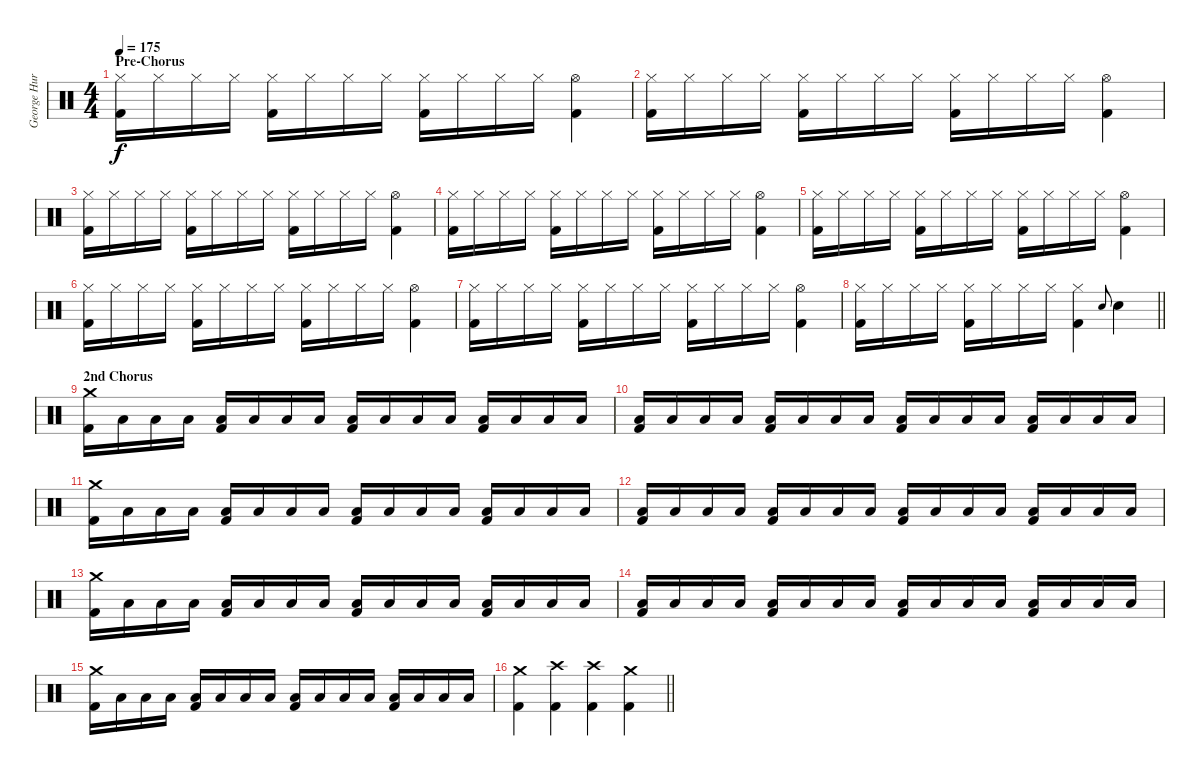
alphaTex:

\track ("George Hurley [Drums]" "George Hur") {instrument percussion}
\staff {score}
\articulation defaults
\ts (4 4)
\section ("" "Pre-Chorus")
\tempo 175
\clef neutral
\ks c
("Hi-Hat (closed)" "Kick (hit) 2").16{dy f} "Hi-Hat (closed)".16 "Hi-Hat (closed)".16 "Hi-Hat (closed)".16 ("Hi-Hat (closed)" "Kick (hit) 2").16 "Hi-Hat (closed)".16 "Hi-Hat (closed)".16 "Hi-Hat (closed)".16 ("Hi-Hat (closed)" "Kick (hit) 2").16 "Hi-Hat (closed)".16 "Hi-Hat (closed)".16 "Hi-Hat (closed)".16 ("Hi-Hat (open)" "Kick (hit) 2").4 |
("Hi-Hat (closed)" "Kick (hit) 2").16 "Hi-Hat (closed)".16 "Hi-Hat (closed)".16 "Hi-Hat (closed)".16 ("Hi-Hat (closed)" "Kick (hit) 2").16 "Hi-Hat (closed)".16 "Hi-Hat (closed)".16 "Hi-Hat (closed)".16 ("Hi-Hat (closed)" "Kick (hit) 2").16 "Hi-Hat (closed)".16 "Hi-Hat (closed)".16 "Hi-Hat (closed)".16 ("Hi-Hat (open)" "Kick (hit) 2").4 |
("Hi-Hat (closed)" "Kick (hit) 2").16 "Hi-Hat (closed)".16 "Hi-Hat (closed)".16 "Hi-Hat (closed)".16 ("Hi-Hat (closed)" "Kick (hit) 2").16 "Hi-Hat (closed)".16 "Hi-Hat (closed)".16 "Hi-Hat (closed)".16 ("Hi-Hat (closed)" "Kick (hit) 2").16 "Hi-Hat (closed)".16 "Hi-Hat (closed)".16 "Hi-Hat (closed)".16 ("Hi-Hat (open)" "Kick (hit) 2").4 |
("Hi-Hat (closed)" "Kick (hit) 2").16 "Hi-Hat (closed)".16 "Hi-Hat (closed)".16 "Hi-Hat (closed)".16 ("Hi-Hat (closed)" "Kick (hit) 2").16 "Hi-Hat (closed)".16 "Hi-Hat (closed)".16 "Hi-Hat (closed)".16 ("Hi-Hat (closed)" "Kick (hit) 2").16 "Hi-Hat (closed)".16 "Hi-Hat (closed)".16 "Hi-Hat (closed)".16 ("Hi-Hat (open)" "Kick (hit) 2").4 |
("Hi-Hat (closed)" "Kick (hit) 2").16 "Hi-Hat (closed)".16 "Hi-Hat (closed)".16 "Hi-Hat (closed)".16 ("Hi-Hat (closed)" "Kick (hit) 2").16 "Hi-Hat (closed)".16 "Hi-Hat (closed)".16 "Hi-Hat (closed)".16 ("Hi-Hat (closed)" "Kick (hit) 2").16 "Hi-Hat (closed)".16 "Hi-Hat (closed)".16 "Hi-Hat (closed)".16 ("Hi-Hat (open)" "Kick (hit) 2").4 |
("Hi-Hat (closed)" "Kick (hit) 2").16 "Hi-Hat (closed)".16 "Hi-Hat (closed)".16 "Hi-Hat (closed)".16 ("Hi-Hat (closed)" "Kick (hit) 2").16 "Hi-Hat (closed)".16 "Hi-Hat (closed)".16 "Hi-Hat (closed)".16 ("Hi-Hat (closed)" "Kick (hit) 2").16 "Hi-Hat (closed)".16 "Hi-Hat (closed)".16 "Hi-Hat (closed)".16 ("Hi-Hat (open)" "Kick (hit) 2").4 |
("Hi-Hat (closed)" "Kick (hit) 2").16 "Hi-Hat (closed)".16 "Hi-Hat (closed)".16 "Hi-Hat (closed)".16 ("Hi-Hat (closed)" "Kick (hit) 2").16 "Hi-Hat (closed)".16 "Hi-Hat (closed)".16 "Hi-Hat (closed)".16 ("Hi-Hat (closed)" "Kick (hit) 2").16 "Hi-Hat (closed)".16 "Hi-Hat (closed)".16 "Hi-Hat (closed)".16 ("Hi-Hat (open)" "Kick (hit) 2").4 |
\barLineRight lightlight
("Hi-Hat (closed)" "Kick (hit) 2").16 "Hi-Hat (closed)".16 "Hi-Hat (closed)".16 "Hi-Hat (closed)".16 ("Hi-Hat (closed)" "Kick (hit) 2").16 "Hi-Hat (closed)".16 "Hi-Hat (closed)".16 "Hi-Hat (closed)".16 ("Hi-Hat (closed)" "Kick (hit) 2").4 "Electric Snare (hit)".8{gr onbeat} "Electric Snare (hit)".4 |
\section ("" "2nd Chorus")
("Crash medium (hit)" "Kick (hit) 2").16 "Low Tom (hit)".16 "Low Tom (hit)".16 "Low Tom (hit)".16 ("Low Tom (hit)" "Kick (hit) 2").16 "Low Tom (hit)".16 "Low Tom (hit)".16 "Low Tom (hit)".16 ("Low Tom (hit)" "Kick (hit) 2").16 "Low Tom (hit)".16 "Low Tom (hit)".16 "Low Tom (hit)".16 ("Low Tom (hit)" "Kick (hit) 2").16 "Low Tom (hit)".16 "Low Tom (hit)".16 "Low Tom (hit)".16 |
("Low Tom (hit)" "Kick (hit) 2").16 "Low Tom (hit)".16 "Low Tom (hit)".16 "Low Tom (hit)".16 ("Low Tom (hit)" "Kick (hit) 2").16 "Low Tom (hit)".16 "Low Tom (hit)".16 "Low Tom (hit)".16 ("Low Tom (hit)" "Kick (hit) 2").16 "Low Tom (hit)".16 "Low Tom (hit)".16 "Low Tom (hit)".16 ("Low Tom (hit)" "Kick (hit) 2").16 "Low Tom (hit)".16 "Low Tom (hit)".16 "Low Tom (hit)".16 |
("Crash medium (hit)" "Kick (hit) 2").16 "Low Tom (hit)".16 "Low Tom (hit)".16 "Low Tom (hit)".16 ("Low Tom (hit)" "Kick (hit) 2").16 "Low Tom (hit)".16 "Low Tom (hit)".16 "Low Tom (hit)".16 ("Low Tom (hit)" "Kick (hit) 2").16 "Low Tom (hit)".16 "Low Tom (hit)".16 "Low Tom (hit)".16 ("Low Tom (hit)" "Kick (hit) 2").16 "Low Tom (hit)".16 "Low Tom (hit)".16 "Low Tom (hit)".16 |
("Low Tom (hit)" "Kick (hit) 2").16 "Low Tom (hit)".16 "Low Tom (hit)".16 "Low Tom (hit)".16 ("Low Tom (hit)" "Kick (hit) 2").16 "Low Tom (hit)".16 "Low Tom (hit)".16 "Low Tom (hit)".16 ("Low Tom (hit)" "Kick (hit) 2").16 "Low Tom (hit)".16 "Low Tom (hit)".16 "Low Tom (hit)".16 ("Low Tom (hit)" "Kick (hit) 2").16 "Low Tom (hit)".16 "Low Tom (hit)".16 "Low Tom (hit)".16 |
("Crash medium (hit)" "Kick (hit) 2").16 "Low Tom (hit)".16 "Low Tom (hit)".16 "Low Tom (hit)".16 ("Low Tom (hit)" "Kick (hit) 2").16 "Low Tom (hit)".16 "Low Tom (hit)".16 "Low Tom (hit)".16 ("Low Tom (hit)" "Kick (hit) 2").16 "Low Tom (hit)".16 "Low Tom (hit)".16 "Low Tom (hit)".16 ("Low Tom (hit)" "Kick (hit) 2").16 "Low Tom (hit)".16 "Low Tom (hit)".16 "Low Tom (hit)".16 |
("Low Tom (hit)" "Kick (hit) 2").16 "Low Tom (hit)".16 "Low Tom (hit)".16 "Low Tom (hit)".16 ("Low Tom (hit)" "Kick (hit) 2").16 "Low Tom (hit)".16 "Low Tom (hit)".16 "Low Tom (hit)".16 ("Low Tom (hit)" "Kick (hit) 2").16 "Low Tom (hit)".16 "Low Tom (hit)".16 "Low Tom (hit)".16 ("Low Tom (hit)" "Kick (hit) 2").16 "Low Tom (hit)".16 "Low Tom (hit)".16 "Low Tom (hit)".16 |
("Crash medium (hit)" "Kick (hit) 2").16 "Low Tom (hit)".16 "Low Tom (hit)".16 "Low Tom (hit)".16 ("Low Tom (hit)" "Kick (hit) 2").16 "Low Tom (hit)".16 "Low Tom (hit)".16 "Low Tom (hit)".16 ("Low Tom (hit)" "Kick (hit) 2").16 "Low Tom (hit)".16 "Low Tom (hit)".16 "Low Tom (hit)".16 ("Low Tom (hit)" "Kick (hit) 2").16 "Low Tom (hit)".16 "Low Tom (hit)".16 "Low Tom (hit)".16 |
\barLineRight lightlight
("Crash medium (hit)" "Kick (hit) 2").4 ("Crash high (hit)" "Kick (hit) 2").4 ("Crash high (hit)" "Kick (hit) 2").4 ("Crash medium (hit)" "Kick (hit) 2").4
